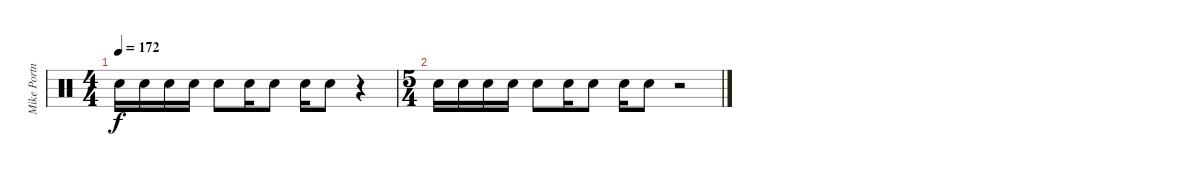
\track ("Mike Portnoy" "Mike Portn") {instrument percussion}
\staff {score}
\articulation defaults
\ts (4 4)
\tempo 172
\clef neutral
\ks c "Electric Snare (hit)".16{dy f} "Electric Snare (hit)".16 "Electric Snare (hit)".16 "Electric Snare (hit)".16 "Electric Snare (hit)".8 "Electric Snare (hit)".16 "Electric Snare (hit)".8 "Electric Snare (hit)".16 "Electric Snare (hit)".8
r.4 |
\ts (5 4)
"Electric Snare (hit)".16 "Electric Snare (hit)".16 "Electric Snare (hit)".16 "Electric Snare (hit)".16 "Electric Snare (hit)".8 "Electric Snare (hit)".16 "Electric Snare (hit)".8 "Electric Snare (hit)".16 "Electric Snare (hit)".8 r.2
